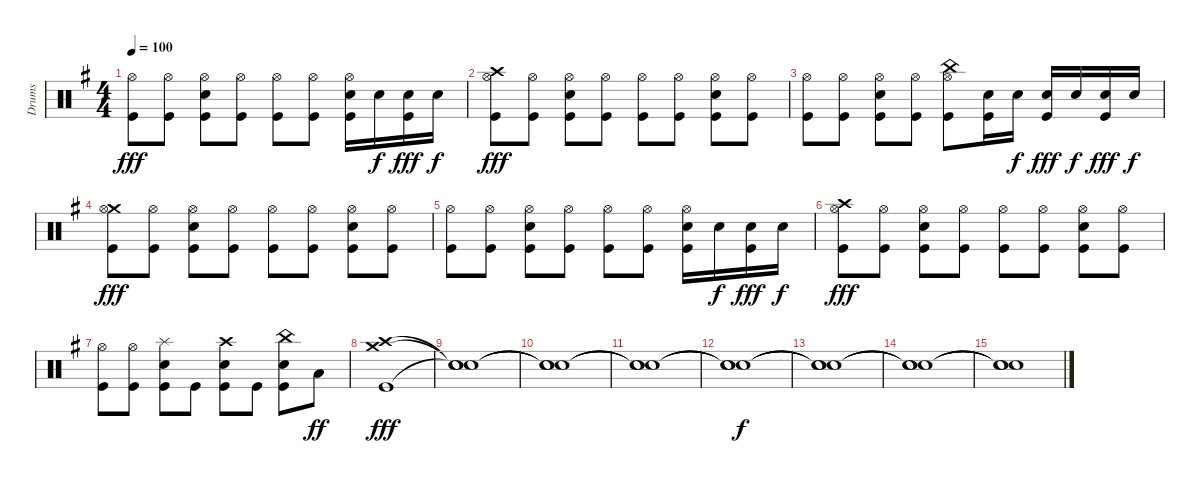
\track ("Drums" "Drums") {instrument percussion}
\staff {score}
\articulation defaults
\ts (4 4)
\tempo 100
\clef neutral
\ks eminor
("Hi-Hat (open)" "Kick (hit)").8{dy fff} ("Hi-Hat (open)" "Kick (hit)").8 ("Hi-Hat (open)" "Snare (hit) 2" "Kick (hit)").8 ("Hi-Hat (open)" "Kick (hit)").8 ("Hi-Hat (open)" "Kick (hit)").8 ("Hi-Hat (open)" "Kick (hit)").8 ("Hi-Hat (open)" "Snare (hit) 2" "Kick (hit)").16 "Snare (hit) 2".16{dy f} ("Snare (hit) 2" "Kick (hit)").16{dy fff} "Snare (hit) 2".16{dy f} |
("Crash high (hit)" "Hi-Hat (open)" "Kick (hit)").8{dy fff} ("Hi-Hat (open)" "Kick (hit)").8 ("Hi-Hat (open)" "Snare (hit) 2" "Kick (hit)").8 ("Hi-Hat (open)" "Kick (hit)").8 ("Hi-Hat (open)" "Kick (hit)").8 ("Hi-Hat (open)" "Kick (hit)").8 ("Hi-Hat (open)" "Snare (hit) 2" "Kick (hit)").8 ("Hi-Hat (open)" "Kick (hit)").8 |
("Hi-Hat (open)" "Kick (hit)").8 ("Hi-Hat (open)" "Kick (hit)").8 ("Hi-Hat (open)" "Snare (hit) 2" "Kick (hit)").8 ("Hi-Hat (open)" "Kick (hit)").8 ("China (hit)" "Hi-Hat (open)" "Kick (hit)").8 ("Snare (hit) 2" "Kick (hit)").16 "Snare (hit) 2".16{dy f} ("Snare (hit) 2" "Kick (hit)").16{dy fff} "Snare (hit) 2".16{dy f} ("Snare (hit) 2" "Kick (hit)").16{dy fff} "Snare (hit) 2".16{dy f} |
("Crash medium (hit)" "Hi-Hat (open)" "Kick (hit)").8{dy fff} ("Hi-Hat (open)" "Kick (hit)").8 ("Hi-Hat (open)" "Snare (hit) 2" "Kick (hit)").8 ("Hi-Hat (open)" "Kick (hit)").8 ("Hi-Hat (open)" "Kick (hit)").8 ("Hi-Hat (open)" "Kick (hit)").8 ("Hi-Hat (open)" "Snare (hit) 2" "Kick (hit)").8 ("Hi-Hat (open)" "Kick (hit)").8 |
("Hi-Hat (open)" "Kick (hit)").8 ("Hi-Hat (open)" "Kick (hit)").8 ("Hi-Hat (open)" "Snare (hit) 2" "Kick (hit)").8 ("Hi-Hat (open)" "Kick (hit)").8 ("Hi-Hat (open)" "Kick (hit)").8 ("Hi-Hat (open)" "Kick (hit)").8 ("Hi-Hat (open)" "Snare (hit) 2" "Kick (hit)").16 "Snare (hit) 2".16{dy f} ("Snare (hit) 2" "Kick (hit)").16{dy fff} "Snare (hit) 2".16{dy f} |
("Crash high (hit)" "Hi-Hat (open)" "Kick (hit)").8{dy fff} ("Hi-Hat (open)" "Kick (hit)").8 ("Hi-Hat (open)" "Snare (hit) 2" "Kick (hit)").8 ("Hi-Hat (open)" "Kick (hit)").8 ("Hi-Hat (open)" "Kick (hit)").8 ("Hi-Hat (open)" "Kick (hit)").8 ("Hi-Hat (open)" "Snare (hit) 2" "Kick (hit)").8 ("Hi-Hat (open)" "Kick (hit)").8 |
("Hi-Hat (open)" "Kick (hit)").8 ("Hi-Hat (open)" "Kick (hit)").8 ("Splash (hit)" "Snare (hit) 2" "Kick (hit)").8 "Kick (hit)".8 ("Crash high (hit)" "Snare (hit) 2" "Kick (hit)").8 "Kick (hit)".8 ("China (hit)" "Snare (hit) 2" "Kick (hit)").8 "Low Tom (hit)".8{dy ff} |
("Crash high (hit)" "Crash medium (hit)" "Kick (hit)").1{dy fff} |
("Snare (hit)"{t} "Snare (hit)"{t} "Snare (hit)"{t}).1 |
("Snare (hit)"{t} "Snare (hit)"{t} "Snare (hit)"{t}).1 |
("Snare (hit)"{t} "Snare (hit)"{t} "Snare (hit)"{t}).1 |
("Snare (hit)"{t} "Snare (hit)"{t} "Snare (hit)"{t}).1{dy f} |
("Snare (hit)"{t} "Snare (hit)"{t} "Snare (hit)"{t}).1 |
("Snare (hit)"{t} "Snare (hit)"{t} "Snare (hit)"{t}).1 |
("Snare (hit)"{t} "Snare (hit)"{t} "Snare (hit)"{t}).1
